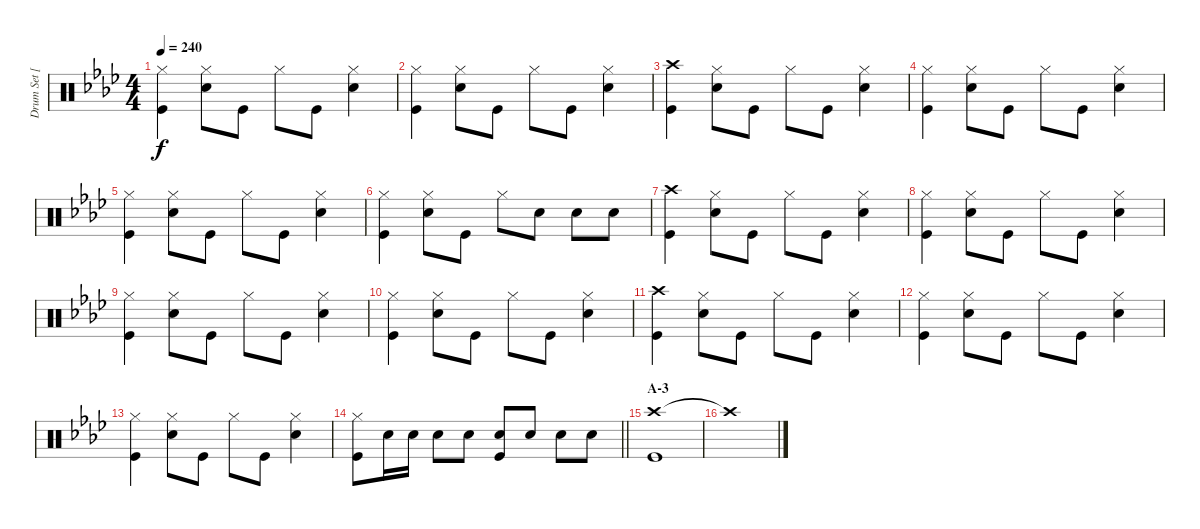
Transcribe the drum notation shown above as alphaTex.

\track ("Drum Set [Ritsu]" "Drum Set [") {instrument percussion}
\staff {score}
\articulation defaults
\ts (4 4)
\tempo 240
\clef neutral
\ks ab
("Hi-Hat (closed)" "Kick (hit)").4{dy f} ("Hi-Hat (closed)" "Snare (hit) 2").8 "Kick (hit)".8 "Hi-Hat (closed)".8 "Kick (hit)".8 ("Hi-Hat (closed)" "Snare (hit) 2").4 |
("Hi-Hat (closed)" "Kick (hit)").4 ("Hi-Hat (closed)" "Snare (hit) 2").8 "Kick (hit)".8 "Hi-Hat (closed)".8 "Kick (hit)".8 ("Hi-Hat (closed)" "Snare (hit) 2").4 |
("Crash high (hit)" "Kick (hit)").4 ("Hi-Hat (closed)" "Snare (hit) 2").8 "Kick (hit)".8 "Hi-Hat (closed)".8 "Kick (hit)".8 ("Hi-Hat (closed)" "Snare (hit) 2").4 |
("Hi-Hat (closed)" "Kick (hit)").4 ("Hi-Hat (closed)" "Snare (hit) 2").8 "Kick (hit)".8 "Hi-Hat (closed)".8 "Kick (hit)".8 ("Hi-Hat (closed)" "Snare (hit) 2").4 |
("Hi-Hat (closed)" "Kick (hit)").4 ("Hi-Hat (closed)" "Snare (hit) 2").8 "Kick (hit)".8 "Hi-Hat (closed)".8 "Kick (hit)".8 ("Hi-Hat (closed)" "Snare (hit) 2").4 |
("Hi-Hat (closed)" "Kick (hit)").4 ("Hi-Hat (closed)" "Snare (hit) 2").8 "Kick (hit)".8 "Hi-Hat (closed)".8 "Snare (hit) 2".8 "Snare (hit) 2".8 "Snare (hit) 2".8 |
("Crash high (hit)" "Kick (hit)").4 ("Hi-Hat (closed)" "Snare (hit) 2").8 "Kick (hit)".8 "Hi-Hat (closed)".8 "Kick (hit)".8 ("Hi-Hat (closed)" "Snare (hit) 2").4 |
("Hi-Hat (closed)" "Kick (hit)").4 ("Hi-Hat (closed)" "Snare (hit) 2").8 "Kick (hit)".8 "Hi-Hat (closed)".8 "Kick (hit)".8 ("Hi-Hat (closed)" "Snare (hit) 2").4 |
("Hi-Hat (closed)" "Kick (hit)").4 ("Hi-Hat (closed)" "Snare (hit) 2").8 "Kick (hit)".8 "Hi-Hat (closed)".8 "Kick (hit)".8 ("Hi-Hat (closed)" "Snare (hit) 2").4 |
("Hi-Hat (closed)" "Kick (hit)").4 ("Hi-Hat (closed)" "Snare (hit) 2").8 "Kick (hit)".8 "Hi-Hat (closed)".8 "Kick (hit)".8 ("Hi-Hat (closed)" "Snare (hit) 2").4 |
("Crash high (hit)" "Kick (hit)").4 ("Hi-Hat (closed)" "Snare (hit) 2").8 "Kick (hit)".8 "Hi-Hat (closed)".8 "Kick (hit)".8 ("Hi-Hat (closed)" "Snare (hit) 2").4 |
("Hi-Hat (closed)" "Kick (hit)").4 ("Hi-Hat (closed)" "Snare (hit) 2").8 "Kick (hit)".8 "Hi-Hat (closed)".8 "Kick (hit)".8 ("Hi-Hat (closed)" "Snare (hit) 2").4 |
("Hi-Hat (closed)" "Kick (hit)").4 ("Hi-Hat (closed)" "Snare (hit) 2").8 "Kick (hit)".8 "Hi-Hat (closed)".8 "Kick (hit)".8 ("Hi-Hat (closed)" "Snare (hit) 2").4 |
\barLineRight lightlight
("Hi-Hat (closed)" "Kick (hit)").8 "Snare (hit) 2".16 "Snare (hit) 2".16 "Snare (hit) 2".8 "Snare (hit) 2".8 ("Snare (hit) 2" "Kick (hit)").8 "Snare (hit) 2".8 "Snare (hit) 2".8 "Snare (hit) 2".8 |
\section ("" "A-3")
("Crash high (hit)" "Kick (hit)").1 |
"Crash high (hit)"{t}.1
